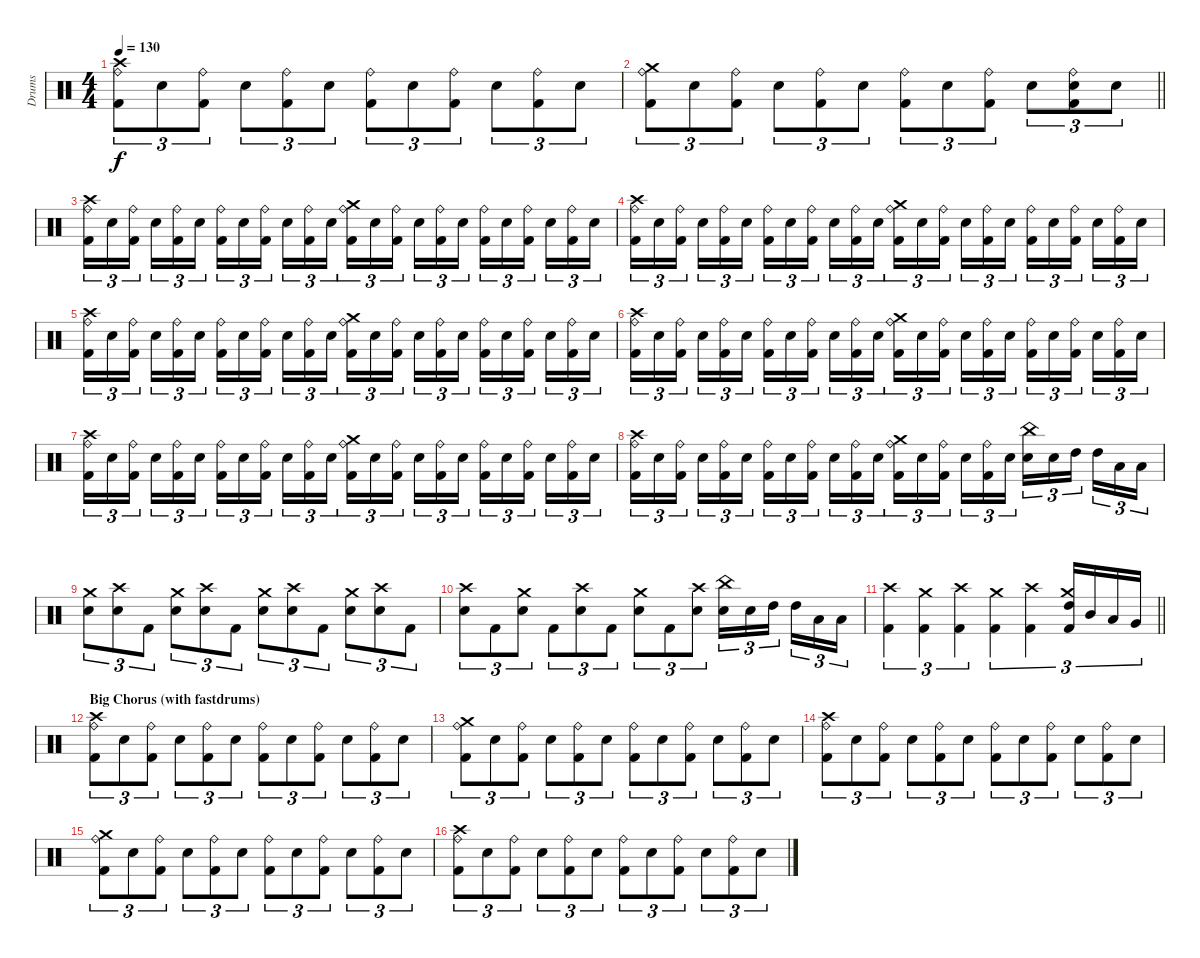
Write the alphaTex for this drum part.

\track ("Drums" "Drums") {instrument percussion}
\staff {score}
\articulation defaults
\ts (4 4)
\tempo 130
\clef neutral
\ks c
("Crash high (hit)" "Ride (bell)" "Kick (hit) 2").8{tu (3 2) dy f} "Snare (hit) 2".8{tu (3 2)} ("Ride (bell)" "Kick (hit) 2").8{tu (3 2)} "Snare (hit) 2".8{tu (3 2)} ("Ride (bell)" "Kick (hit) 2").8{tu (3 2)} "Snare (hit) 2".8{tu (3 2)} ("Ride (bell)" "Kick (hit) 2").8{tu (3 2)} "Snare (hit) 2".8{tu (3 2)} ("Ride (bell)" "Kick (hit) 2").8{tu (3 2)} "Snare (hit) 2".8{tu (3 2)} ("Ride (bell)" "Kick (hit) 2").8{tu (3 2)} "Snare (hit) 2".8{tu (3 2)} |
\barLineRight lightlight
("Crash medium (hit)" "Ride (bell)" "Kick (hit) 2").8{tu (3 2)} "Snare (hit) 2".8{tu (3 2)} ("Ride (bell)" "Kick (hit) 2").8{tu (3 2)} "Snare (hit) 2".8{tu (3 2)} ("Ride (bell)" "Kick (hit) 2").8{tu (3 2)} "Snare (hit) 2".8{tu (3 2)} ("Ride (bell)" "Kick (hit) 2").8{tu (3 2)} "Snare (hit) 2".8{tu (3 2)} ("Ride (bell)" "Kick (hit) 2").8{tu (3 2)} "Snare (hit) 2".8{tu (3 2)} ("Ride (bell)" "Snare (hit) 2" "Kick (hit) 2").8{tu (3 2)} "Snare (hit) 2".8{tu (3 2)} |
("Crash high (hit)" "Ride (bell)" "Kick (hit) 2").16{tu (3 2)} "Snare (hit) 2".16{tu (3 2)} ("Ride (bell)" "Kick (hit) 2").16{tu (3 2) beam splitsecondary} "Snare (hit) 2".16{tu (3 2)} ("Ride (bell)" "Kick (hit) 2").16{tu (3 2)} "Snare (hit) 2".16{tu (3 2)} ("Ride (bell)" "Kick (hit) 2").16{tu (3 2)} "Snare (hit) 2".16{tu (3 2)} ("Ride (bell)" "Kick (hit) 2").16{tu (3 2) beam splitsecondary} "Snare (hit) 2".16{tu (3 2)} ("Ride (bell)" "Kick (hit) 2").16{tu (3 2)} "Snare (hit) 2".16{tu (3 2)} ("Crash medium (hit)" "Ride (bell)" "Kick (hit) 2").16{tu (3 2)} "Snare (hit) 2".16{tu (3 2)} ("Ride (bell)" "Kick (hit) 2").16{tu (3 2) beam splitsecondary} "Snare (hit) 2".16{tu (3 2)} ("Ride (bell)" "Kick (hit) 2").16{tu (3 2)} "Snare (hit) 2".16{tu (3 2)} ("Ride (bell)" "Kick (hit) 2").16{tu (3 2)} "Snare (hit) 2".16{tu (3 2)} ("Ride (bell)" "Kick (hit) 2").16{tu (3 2) beam splitsecondary} "Snare (hit) 2".16{tu (3 2)} ("Ride (bell)" "Kick (hit) 2").16{tu (3 2)} "Snare (hit) 2".16{tu (3 2)} |
("Crash high (hit)" "Ride (bell)" "Kick (hit) 2").16{tu (3 2)} "Snare (hit) 2".16{tu (3 2)} ("Ride (bell)" "Kick (hit) 2").16{tu (3 2) beam splitsecondary} "Snare (hit) 2".16{tu (3 2)} ("Ride (bell)" "Kick (hit) 2").16{tu (3 2)} "Snare (hit) 2".16{tu (3 2)} ("Ride (bell)" "Kick (hit) 2").16{tu (3 2)} "Snare (hit) 2".16{tu (3 2)} ("Ride (bell)" "Kick (hit) 2").16{tu (3 2) beam splitsecondary} "Snare (hit) 2".16{tu (3 2)} ("Ride (bell)" "Kick (hit) 2").16{tu (3 2)} "Snare (hit) 2".16{tu (3 2)} ("Crash medium (hit)" "Ride (bell)" "Kick (hit) 2").16{tu (3 2)} "Snare (hit) 2".16{tu (3 2)} ("Ride (bell)" "Kick (hit) 2").16{tu (3 2) beam splitsecondary} "Snare (hit) 2".16{tu (3 2)} ("Ride (bell)" "Kick (hit) 2").16{tu (3 2)} "Snare (hit) 2".16{tu (3 2)} ("Ride (bell)" "Kick (hit) 2").16{tu (3 2)} "Snare (hit) 2".16{tu (3 2)} ("Ride (bell)" "Kick (hit) 2").16{tu (3 2) beam splitsecondary} "Snare (hit) 2".16{tu (3 2)} ("Ride (bell)" "Kick (hit) 2").16{tu (3 2)} "Snare (hit) 2".16{tu (3 2)} |
("Crash high (hit)" "Ride (bell)" "Kick (hit) 2").16{tu (3 2)} "Snare (hit) 2".16{tu (3 2)} ("Ride (bell)" "Kick (hit) 2").16{tu (3 2) beam splitsecondary} "Snare (hit) 2".16{tu (3 2)} ("Ride (bell)" "Kick (hit) 2").16{tu (3 2)} "Snare (hit) 2".16{tu (3 2)} ("Ride (bell)" "Kick (hit) 2").16{tu (3 2)} "Snare (hit) 2".16{tu (3 2)} ("Ride (bell)" "Kick (hit) 2").16{tu (3 2) beam splitsecondary} "Snare (hit) 2".16{tu (3 2)} ("Ride (bell)" "Kick (hit) 2").16{tu (3 2)} "Snare (hit) 2".16{tu (3 2)} ("Crash medium (hit)" "Ride (bell)" "Kick (hit) 2").16{tu (3 2)} "Snare (hit) 2".16{tu (3 2)} ("Ride (bell)" "Kick (hit) 2").16{tu (3 2) beam splitsecondary} "Snare (hit) 2".16{tu (3 2)} ("Ride (bell)" "Kick (hit) 2").16{tu (3 2)} "Snare (hit) 2".16{tu (3 2)} ("Ride (bell)" "Kick (hit) 2").16{tu (3 2)} "Snare (hit) 2".16{tu (3 2)} ("Ride (bell)" "Kick (hit) 2").16{tu (3 2) beam splitsecondary} "Snare (hit) 2".16{tu (3 2)} ("Ride (bell)" "Kick (hit) 2").16{tu (3 2)} "Snare (hit) 2".16{tu (3 2)} |
("Crash high (hit)" "Ride (bell)" "Kick (hit) 2").16{tu (3 2)} "Snare (hit) 2".16{tu (3 2)} ("Ride (bell)" "Kick (hit) 2").16{tu (3 2) beam splitsecondary} "Snare (hit) 2".16{tu (3 2)} ("Ride (bell)" "Kick (hit) 2").16{tu (3 2)} "Snare (hit) 2".16{tu (3 2)} ("Ride (bell)" "Kick (hit) 2").16{tu (3 2)} "Snare (hit) 2".16{tu (3 2)} ("Ride (bell)" "Kick (hit) 2").16{tu (3 2) beam splitsecondary} "Snare (hit) 2".16{tu (3 2)} ("Ride (bell)" "Kick (hit) 2").16{tu (3 2)} "Snare (hit) 2".16{tu (3 2)} ("Crash medium (hit)" "Ride (bell)" "Kick (hit) 2").16{tu (3 2)} "Snare (hit) 2".16{tu (3 2)} ("Ride (bell)" "Kick (hit) 2").16{tu (3 2) beam splitsecondary} "Snare (hit) 2".16{tu (3 2)} ("Ride (bell)" "Kick (hit) 2").16{tu (3 2)} "Snare (hit) 2".16{tu (3 2)} ("Ride (bell)" "Kick (hit) 2").16{tu (3 2)} "Snare (hit) 2".16{tu (3 2)} ("Ride (bell)" "Kick (hit) 2").16{tu (3 2) beam splitsecondary} "Snare (hit) 2".16{tu (3 2)} ("Ride (bell)" "Kick (hit) 2").16{tu (3 2)} "Snare (hit) 2".16{tu (3 2)} |
("Crash high (hit)" "Ride (bell)" "Kick (hit) 2").16{tu (3 2)} "Snare (hit) 2".16{tu (3 2)} ("Ride (bell)" "Kick (hit) 2").16{tu (3 2) beam splitsecondary} "Snare (hit) 2".16{tu (3 2)} ("Ride (bell)" "Kick (hit) 2").16{tu (3 2)} "Snare (hit) 2".16{tu (3 2)} ("Ride (bell)" "Kick (hit) 2").16{tu (3 2)} "Snare (hit) 2".16{tu (3 2)} ("Ride (bell)" "Kick (hit) 2").16{tu (3 2) beam splitsecondary} "Snare (hit) 2".16{tu (3 2)} ("Ride (bell)" "Kick (hit) 2").16{tu (3 2)} "Snare (hit) 2".16{tu (3 2)} ("Crash medium (hit)" "Ride (bell)" "Kick (hit) 2").16{tu (3 2)} "Snare (hit) 2".16{tu (3 2)} ("Ride (bell)" "Kick (hit) 2").16{tu (3 2) beam splitsecondary} "Snare (hit) 2".16{tu (3 2)} ("Ride (bell)" "Kick (hit) 2").16{tu (3 2)} "Snare (hit) 2".16{tu (3 2)} ("Ride (bell)" "Kick (hit) 2").16{tu (3 2)} "Snare (hit) 2".16{tu (3 2)} ("Ride (bell)" "Kick (hit) 2").16{tu (3 2) beam splitsecondary} "Snare (hit) 2".16{tu (3 2)} ("Ride (bell)" "Kick (hit) 2").16{tu (3 2)} "Snare (hit) 2".16{tu (3 2)} |
("Crash high (hit)" "Ride (bell)" "Kick (hit) 2").16{tu (3 2)} "Snare (hit) 2".16{tu (3 2)} ("Ride (bell)" "Kick (hit) 2").16{tu (3 2) beam splitsecondary} "Snare (hit) 2".16{tu (3 2)} ("Ride (bell)" "Kick (hit) 2").16{tu (3 2)} "Snare (hit) 2".16{tu (3 2)} ("Ride (bell)" "Kick (hit) 2").16{tu (3 2)} "Snare (hit) 2".16{tu (3 2)} ("Ride (bell)" "Kick (hit) 2").16{tu (3 2) beam splitsecondary} "Snare (hit) 2".16{tu (3 2)} ("Ride (bell)" "Kick (hit) 2").16{tu (3 2)} "Snare (hit) 2".16{tu (3 2)} ("Crash medium (hit)" "Ride (bell)" "Kick (hit) 2").16{tu (3 2)} "Snare (hit) 2".16{tu (3 2)} ("Ride (bell)" "Kick (hit) 2").16{tu (3 2) beam splitsecondary} "Snare (hit) 2".16{tu (3 2)} ("Ride (bell)" "Kick (hit) 2").16{tu (3 2)} "Snare (hit) 2".16{tu (3 2)} ("China (hit)" "Snare (hit) 2").16{tu (3 2)} "Snare (hit) 2".16{tu (3 2)} "High Tom (hit)".16{tu (3 2) beam splitsecondary} "High Tom (hit)".16{tu (3 2)} "Low Tom (hit)".16{tu (3 2)} "Low Tom (hit)".16{tu (3 2)} |
("Crash medium (hit)" "Snare (hit) 2").8{tu (3 2)} ("Crash high (hit)" "Snare (hit) 2").8{tu (3 2)} "Kick (hit) 2".8{tu (3 2)} ("Crash medium (hit)" "Snare (hit) 2").8{tu (3 2)} ("Crash high (hit)" "Snare (hit) 2").8{tu (3 2)} "Kick (hit) 2".8{tu (3 2)} ("Crash medium (hit)" "Snare (hit) 2").8{tu (3 2)} ("Crash high (hit)" "Snare (hit) 2").8{tu (3 2)} "Kick (hit) 2".8{tu (3 2)} ("Crash medium (hit)" "Snare (hit) 2").8{tu (3 2)} ("Crash high (hit)" "Snare (hit) 2").8{tu (3 2)} "Kick (hit) 2".8{tu (3 2)} |
("Crash high (hit)" "Snare (hit) 2").8{tu (3 2)} "Kick (hit) 2".8{tu (3 2)} ("Crash medium (hit)" "Snare (hit) 2").8{tu (3 2)} "Kick (hit) 2".8{tu (3 2)} ("Crash high (hit)" "Snare (hit) 2").8{tu (3 2)} "Kick (hit) 2".8{tu (3 2)} ("Crash medium (hit)" "Snare (hit) 2").8{tu (3 2)} "Kick (hit) 2".8{tu (3 2)} ("Crash high (hit)" "Snare (hit) 2").8{tu (3 2)} ("China (hit)" "Snare (hit) 2").16{tu (3 2)} "Snare (hit) 2".16{tu (3 2)} "High Tom (hit)".16{tu (3 2) beam splitsecondary} "High Tom (hit)".16{tu (3 2)} "Low Tom (hit)".16{tu (3 2)} "Low Tom (hit)".16{tu (3 2)} |
\barLineRight lightlight
("Crash high (hit)" "Kick (hit) 2").4{tu (3 2)} ("Crash medium (hit)" "Kick (hit) 2").4{tu (3 2)} ("Crash high (hit)" "Kick (hit) 2").4{tu (3 2)} ("Crash medium (hit)" "Kick (hit) 2").4{tu (3 2)} ("Crash high (hit)" "Kick (hit) 2").4{tu (3 2)} ("Crash medium (hit)" "High Tom (hit)" "Kick (hit) 2").16{tu (3 2)} "Mid Tom (hit)".16{tu (3 2)} "Low Tom (hit)".16{tu (3 2)} "Very Low Tom (hit)".16{tu (3 2)} |
\section ("" "Big Chorus (with fastdrums)")
("Crash high (hit)" "Ride (bell)" "Kick (hit) 2").8{tu (3 2)} "Snare (hit) 2".8{tu (3 2)} ("Ride (bell)" "Kick (hit) 2").8{tu (3 2)} "Snare (hit) 2".8{tu (3 2)} ("Ride (bell)" "Kick (hit) 2").8{tu (3 2)} "Snare (hit) 2".8{tu (3 2)} ("Ride (bell)" "Kick (hit) 2").8{tu (3 2)} "Snare (hit) 2".8{tu (3 2)} ("Ride (bell)" "Kick (hit) 2").8{tu (3 2)} "Snare (hit) 2".8{tu (3 2)} ("Ride (bell)" "Kick (hit) 2").8{tu (3 2)} "Snare (hit) 2".8{tu (3 2)} |
("Crash medium (hit)" "Ride (bell)" "Kick (hit) 2").8{tu (3 2)} "Snare (hit) 2".8{tu (3 2)} ("Ride (bell)" "Kick (hit) 2").8{tu (3 2)} "Snare (hit) 2".8{tu (3 2)} ("Ride (bell)" "Kick (hit) 2").8{tu (3 2)} "Snare (hit) 2".8{tu (3 2)} ("Ride (bell)" "Kick (hit) 2").8{tu (3 2)} "Snare (hit) 2".8{tu (3 2)} ("Ride (bell)" "Kick (hit) 2").8{tu (3 2)} "Snare (hit) 2".8{tu (3 2)} ("Ride (bell)" "Kick (hit) 2").8{tu (3 2)} "Snare (hit) 2".8{tu (3 2)} |
("Crash high (hit)" "Ride (bell)" "Kick (hit) 2").8{tu (3 2)} "Snare (hit) 2".8{tu (3 2)} ("Ride (bell)" "Kick (hit) 2").8{tu (3 2)} "Snare (hit) 2".8{tu (3 2)} ("Ride (bell)" "Kick (hit) 2").8{tu (3 2)} "Snare (hit) 2".8{tu (3 2)} ("Ride (bell)" "Kick (hit) 2").8{tu (3 2)} "Snare (hit) 2".8{tu (3 2)} ("Ride (bell)" "Kick (hit) 2").8{tu (3 2)} "Snare (hit) 2".8{tu (3 2)} ("Ride (bell)" "Kick (hit) 2").8{tu (3 2)} "Snare (hit) 2".8{tu (3 2)} |
("Crash medium (hit)" "Ride (bell)" "Kick (hit) 2").8{tu (3 2)} "Snare (hit) 2".8{tu (3 2)} ("Ride (bell)" "Kick (hit) 2").8{tu (3 2)} "Snare (hit) 2".8{tu (3 2)} ("Ride (bell)" "Kick (hit) 2").8{tu (3 2)} "Snare (hit) 2".8{tu (3 2)} ("Ride (bell)" "Kick (hit) 2").8{tu (3 2)} "Snare (hit) 2".8{tu (3 2)} ("Ride (bell)" "Kick (hit) 2").8{tu (3 2)} "Snare (hit) 2".8{tu (3 2)} ("Ride (bell)" "Kick (hit) 2").8{tu (3 2)} "Snare (hit) 2".8{tu (3 2)} |
("Crash high (hit)" "Ride (bell)" "Kick (hit) 2").8{tu (3 2)} "Snare (hit) 2".8{tu (3 2)} ("Ride (bell)" "Kick (hit) 2").8{tu (3 2)} "Snare (hit) 2".8{tu (3 2)} ("Ride (bell)" "Kick (hit) 2").8{tu (3 2)} "Snare (hit) 2".8{tu (3 2)} ("Ride (bell)" "Kick (hit) 2").8{tu (3 2)} "Snare (hit) 2".8{tu (3 2)} ("Ride (bell)" "Kick (hit) 2").8{tu (3 2)} "Snare (hit) 2".8{tu (3 2)} ("Ride (bell)" "Kick (hit) 2").8{tu (3 2)} "Snare (hit) 2".8{tu (3 2)}
